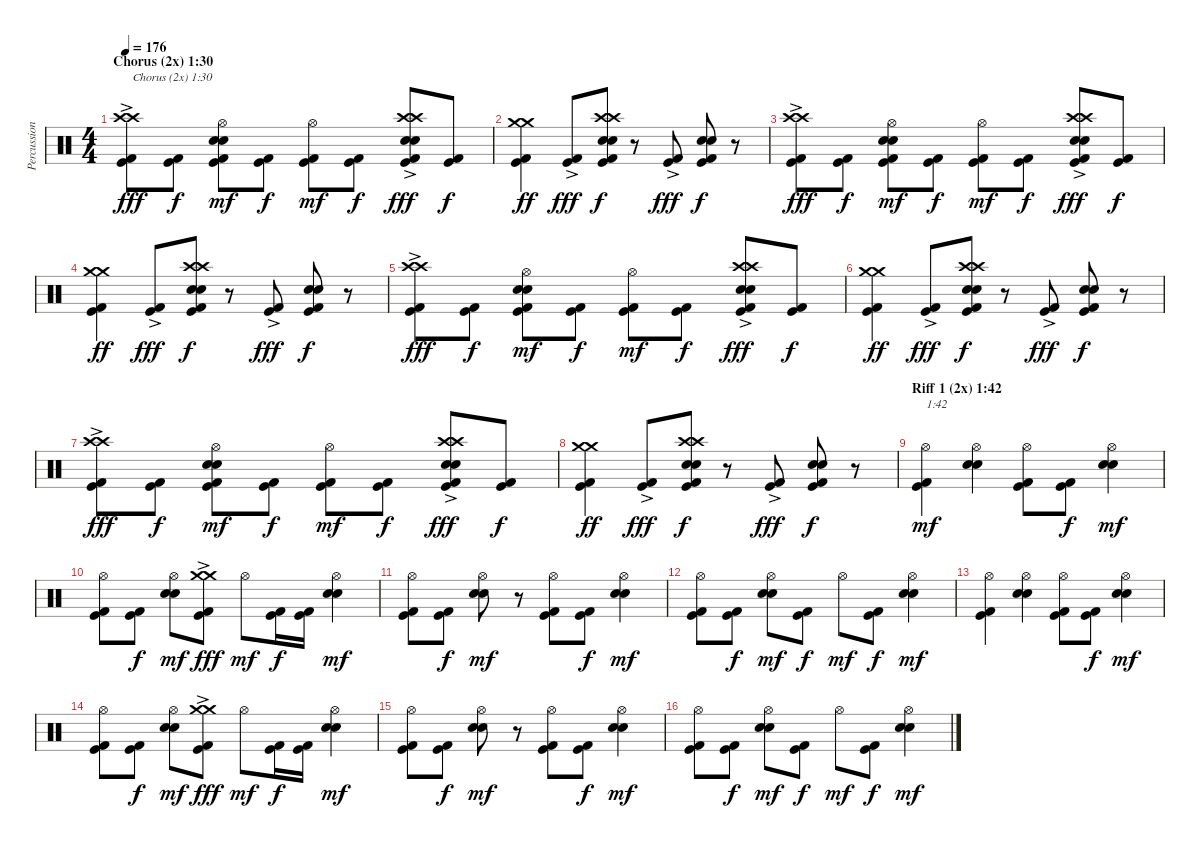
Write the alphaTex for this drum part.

\track ("Percussion" "Percussion") {instrument percussion}
\staff {score}
\articulation defaults
\ts (4 4)
\section ("" "Chorus (2x) 1:30")
\tempo 176
\clef neutral
\ks c
("Kick (hit) 2" "Kick (hit)" "Crash high (hit)"{ac} "Crash high (hit)"{ac}).8{txt "Chorus (2x) 1:30" dy fff} ("Kick (hit) 2" "Kick (hit)").8{dy f} ("Kick (hit) 2" "Kick (hit)" "Electric Snare (hit)" "Snare (hit) 2" "Hi-Hat (open)").8{dy mf} ("Kick (hit) 2" "Kick (hit)").8{dy f} ("Kick (hit) 2" "Kick (hit)" "Hi-Hat (open)").8{dy mf} ("Kick (hit) 2" "Kick (hit)").8{dy f} ("Kick (hit) 2" "Kick (hit)" "Electric Snare (hit)" "Snare (hit) 2" "Crash high (hit)"{ac} "Crash high (hit)"{ac}).8{dy fff} ("Kick (hit) 2" "Kick (hit)").8{dy f} |
("Kick (hit) 2" "Kick (hit)" "Crash medium (hit)" "Crash medium (hit)").4{dy ff} ("Kick (hit) 2"{ac} "Kick (hit)"{ac}).8{dy fff} ("Kick (hit) 2" "Kick (hit)" "Electric Snare (hit)" "Snare (hit) 2" "Crash high (hit)" "Crash high (hit)").8{dy f} r.8 ("Kick (hit) 2"{ac} "Kick (hit)"{ac}).8{dy fff} ("Kick (hit) 2" "Kick (hit)" "Electric Snare (hit)" "Snare (hit) 2").8{dy f} r.8 |
("Kick (hit) 2" "Kick (hit)" "Crash high (hit)"{ac} "Crash high (hit)"{ac}).8{dy fff} ("Kick (hit) 2" "Kick (hit)").8{dy f} ("Kick (hit) 2" "Kick (hit)" "Electric Snare (hit)" "Snare (hit) 2" "Hi-Hat (open)").8{dy mf} ("Kick (hit) 2" "Kick (hit)").8{dy f} ("Kick (hit) 2" "Kick (hit)" "Hi-Hat (open)").8{dy mf} ("Kick (hit) 2" "Kick (hit)").8{dy f} ("Kick (hit) 2" "Kick (hit)" "Electric Snare (hit)" "Snare (hit) 2" "Crash high (hit)"{ac} "Crash high (hit)"{ac}).8{dy fff} ("Kick (hit) 2" "Kick (hit)").8{dy f} |
("Kick (hit) 2" "Kick (hit)" "Crash medium (hit)" "Crash medium (hit)").4{dy ff} ("Kick (hit) 2"{ac} "Kick (hit)"{ac}).8{dy fff} ("Kick (hit) 2" "Kick (hit)" "Electric Snare (hit)" "Snare (hit) 2" "Crash high (hit)" "Crash high (hit)").8{dy f} r.8 ("Kick (hit) 2"{ac} "Kick (hit)"{ac}).8{dy fff} ("Kick (hit) 2" "Kick (hit)" "Electric Snare (hit)" "Snare (hit) 2").8{dy f} r.8 |
("Kick (hit) 2" "Kick (hit)" "Crash high (hit)"{ac} "Crash high (hit)"{ac}).8{dy fff} ("Kick (hit) 2" "Kick (hit)").8{dy f} ("Kick (hit) 2" "Kick (hit)" "Electric Snare (hit)" "Snare (hit) 2" "Hi-Hat (open)").8{dy mf} ("Kick (hit) 2" "Kick (hit)").8{dy f} ("Kick (hit) 2" "Kick (hit)" "Hi-Hat (open)").8{dy mf} ("Kick (hit) 2" "Kick (hit)").8{dy f} ("Kick (hit) 2" "Kick (hit)" "Electric Snare (hit)" "Snare (hit) 2" "Crash high (hit)"{ac} "Crash high (hit)"{ac}).8{dy fff} ("Kick (hit) 2" "Kick (hit)").8{dy f} |
("Kick (hit) 2" "Kick (hit)" "Crash medium (hit)" "Crash medium (hit)").4{dy ff} ("Kick (hit) 2"{ac} "Kick (hit)"{ac}).8{dy fff} ("Kick (hit) 2" "Kick (hit)" "Electric Snare (hit)" "Snare (hit) 2" "Crash high (hit)" "Crash high (hit)").8{dy f} r.8 ("Kick (hit) 2"{ac} "Kick (hit)"{ac}).8{dy fff} ("Kick (hit) 2" "Kick (hit)" "Electric Snare (hit)" "Snare (hit) 2").8{dy f} r.8 |
("Kick (hit) 2" "Kick (hit)" "Crash high (hit)"{ac} "Crash high (hit)"{ac}).8{dy fff} ("Kick (hit) 2" "Kick (hit)").8{dy f} ("Kick (hit) 2" "Kick (hit)" "Electric Snare (hit)" "Snare (hit) 2" "Hi-Hat (open)").8{dy mf} ("Kick (hit) 2" "Kick (hit)").8{dy f} ("Kick (hit) 2" "Kick (hit)" "Hi-Hat (open)").8{dy mf} ("Kick (hit) 2" "Kick (hit)").8{dy f} ("Kick (hit) 2" "Kick (hit)" "Electric Snare (hit)" "Snare (hit) 2" "Crash high (hit)"{ac} "Crash high (hit)"{ac}).8{dy fff} ("Kick (hit) 2" "Kick (hit)").8{dy f} |
("Kick (hit) 2" "Kick (hit)" "Crash medium (hit)" "Crash medium (hit)").4{dy ff} ("Kick (hit) 2"{ac} "Kick (hit)"{ac}).8{dy fff} ("Kick (hit) 2" "Kick (hit)" "Electric Snare (hit)" "Snare (hit) 2" "Crash high (hit)" "Crash high (hit)").8{dy f} r.8 ("Kick (hit) 2"{ac} "Kick (hit)"{ac}).8{dy fff} ("Kick (hit) 2" "Kick (hit)" "Electric Snare (hit)" "Snare (hit) 2").8{dy f} r.8 |
\section ("" "Riff 1 (2x) 1:42")
("Kick (hit) 2" "Kick (hit)" "Hi-Hat (open)").4{txt "1:42" dy mf} ("Electric Snare (hit)" "Snare (hit) 2" "Hi-Hat (open)").4 ("Kick (hit) 2" "Kick (hit)" "Hi-Hat (open)").8 ("Kick (hit) 2" "Kick (hit)").8{dy f} ("Electric Snare (hit)" "Snare (hit) 2" "Hi-Hat (open)").4{dy mf} |
("Kick (hit) 2" "Kick (hit)" "Hi-Hat (open)").8 ("Kick (hit) 2" "Kick (hit)").8{dy f} ("Electric Snare (hit)" "Snare (hit) 2" "Hi-Hat (open)").8{dy mf} ("Kick (hit) 2" "Kick (hit)" "Crash medium (hit)"{ac} "Crash medium (hit)"{ac}).8{dy fff} "Hi-Hat (open)".8{dy mf} ("Kick (hit) 2" "Kick (hit)").16{dy f} ("Kick (hit) 2" "Kick (hit)").16 ("Electric Snare (hit)" "Snare (hit) 2" "Hi-Hat (open)").4{dy mf} |
("Kick (hit) 2" "Kick (hit)" "Hi-Hat (open)").8 ("Kick (hit) 2" "Kick (hit)").8{dy f} ("Electric Snare (hit)" "Snare (hit) 2" "Hi-Hat (open)").8{dy mf} r.8 ("Kick (hit) 2" "Kick (hit)" "Hi-Hat (open)").8 ("Kick (hit) 2" "Kick (hit)").8{dy f} ("Electric Snare (hit)" "Snare (hit) 2" "Hi-Hat (open)").4{dy mf} |
("Kick (hit) 2" "Kick (hit)" "Hi-Hat (open)").8 ("Kick (hit) 2" "Kick (hit)").8{dy f} ("Electric Snare (hit)" "Snare (hit) 2" "Hi-Hat (open)").8{dy mf} ("Kick (hit) 2" "Kick (hit)").8{dy f} "Hi-Hat (open)".8{dy mf} ("Kick (hit) 2" "Kick (hit)").8{dy f} ("Electric Snare (hit)" "Snare (hit) 2" "Hi-Hat (open)").4{dy mf} |
("Kick (hit) 2" "Kick (hit)" "Hi-Hat (open)").4 ("Electric Snare (hit)" "Snare (hit) 2" "Hi-Hat (open)").4 ("Kick (hit) 2" "Kick (hit)" "Hi-Hat (open)").8 ("Kick (hit) 2" "Kick (hit)").8{dy f} ("Electric Snare (hit)" "Snare (hit) 2" "Hi-Hat (open)").4{dy mf} |
("Kick (hit) 2" "Kick (hit)" "Hi-Hat (open)").8 ("Kick (hit) 2" "Kick (hit)").8{dy f} ("Electric Snare (hit)" "Snare (hit) 2" "Hi-Hat (open)").8{dy mf} ("Kick (hit) 2" "Kick (hit)" "Crash medium (hit)"{ac} "Crash medium (hit)"{ac}).8{dy fff} "Hi-Hat (open)".8{dy mf} ("Kick (hit) 2" "Kick (hit)").16{dy f} ("Kick (hit) 2" "Kick (hit)").16 ("Electric Snare (hit)" "Snare (hit) 2" "Hi-Hat (open)").4{dy mf} |
("Kick (hit) 2" "Kick (hit)" "Hi-Hat (open)").8 ("Kick (hit) 2" "Kick (hit)").8{dy f} ("Electric Snare (hit)" "Snare (hit) 2" "Hi-Hat (open)").8{dy mf} r.8 ("Kick (hit) 2" "Kick (hit)" "Hi-Hat (open)").8 ("Kick (hit) 2" "Kick (hit)").8{dy f} ("Electric Snare (hit)" "Snare (hit) 2" "Hi-Hat (open)").4{dy mf} |
("Kick (hit) 2" "Kick (hit)" "Hi-Hat (open)").8 ("Kick (hit) 2" "Kick (hit)").8{dy f} ("Electric Snare (hit)" "Snare (hit) 2" "Hi-Hat (open)").8{dy mf} ("Kick (hit) 2" "Kick (hit)").8{dy f} "Hi-Hat (open)".8{dy mf} ("Kick (hit) 2" "Kick (hit)").8{dy f} ("Electric Snare (hit)" "Snare (hit) 2" "Hi-Hat (open)").4{dy mf}
